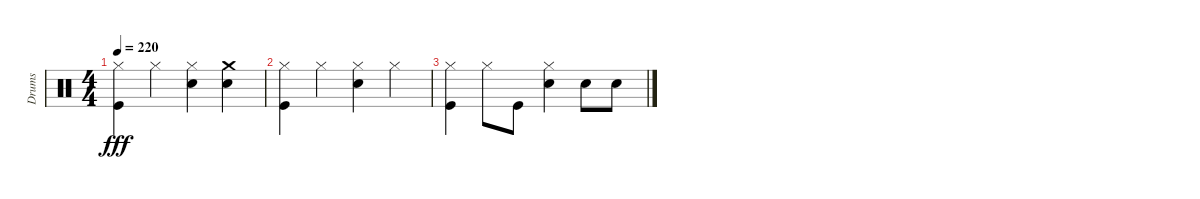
\track ("Drums" "Drums") {instrument percussion}
\staff {score}
\articulation defaults
\ts (4 4)
\tempo 220
\clef neutral
\ks c
("Kick (hit)" "Hi-Hat (closed)").4{dy fff} "Hi-Hat (closed)".4 ("Hi-Hat (closed)" "Snare (hit) 2").4 ("Snare (hit) 2" "Crash medium (hit)").4 |
("Kick (hit)" "Hi-Hat (closed)").4 "Hi-Hat (closed)".4 ("Snare (hit) 2" "Hi-Hat (closed)").4 "Hi-Hat (closed)".4 |
("Kick (hit)" "Hi-Hat (closed)").4 "Hi-Hat (closed)".8 "Kick (hit)".8 ("Snare (hit) 2" "Hi-Hat (closed)").4 "Snare (hit) 2".8 "Snare (hit) 2".8
